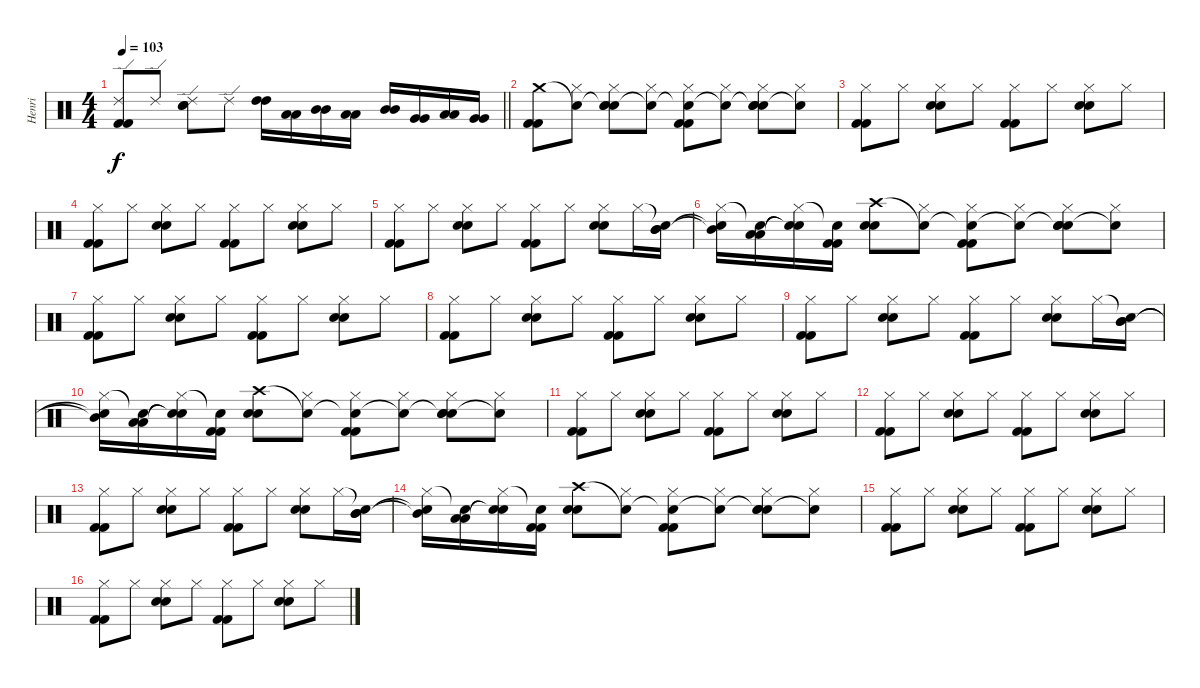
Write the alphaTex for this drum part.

\track ("Henri" "Henri") {instrument percussion}
\staff {score}
\articulation defaults
\ts (4 4)
\tempo 103
\clef neutral
\barLineRight lightlight
\ks c
("Ride (edge) 2" "Kick (hit) 2" "Kick (hit) 2").8{dy f} "Ride (edge) 2".8 ("Ride (edge) 2" "Snare (hit) 2" "Snare (hit) 2").8 "Ride (edge) 2".8 ("High Tom (hit)" "High Tom (hit)").16 ("Low Tom (hit)" "Low Tom (hit)").16 ("Mid Tom (hit)" "Mid Tom (hit)").16 ("Low Tom (hit)" "Low Tom (hit)").16 ("Mid Tom (hit)" "Mid Tom (hit)").16 ("Very Low Tom (hit)" "Very Low Tom (hit)").16 ("Low Tom (hit)" "Low Tom (hit)").16 ("Very Low Tom (hit)" "Very Low Tom (hit)").16 |
("Crash medium (hit)" "Kick (hit) 2" "Kick (hit) 2").8 ("Snare (hit)"{t} "Hi-Hat (closed)").8 ("Snare (hit)"{t} "Hi-Hat (closed)" "Snare (hit) 2" "Snare (hit) 2").8 ("Snare (hit)"{t} "Hi-Hat (closed)").8 ("Snare (hit)"{t} "Hi-Hat (closed)" "Kick (hit) 2" "Kick (hit) 2").8 ("Snare (hit)"{t} "Hi-Hat (closed)").8 ("Snare (hit)"{t} "Hi-Hat (closed)" "Snare (hit) 2" "Snare (hit) 2").8 ("Snare (hit)"{t} "Hi-Hat (closed)").8 |
("Hi-Hat (closed)" "Kick (hit) 2" "Kick (hit) 2").8 "Hi-Hat (closed)".8 ("Hi-Hat (closed)" "Snare (hit) 2" "Snare (hit) 2").8 "Hi-Hat (closed)".8 ("Hi-Hat (closed)" "Kick (hit) 2" "Kick (hit) 2").8 "Hi-Hat (closed)".8 ("Hi-Hat (closed)" "Snare (hit) 2" "Snare (hit) 2").8 "Hi-Hat (closed)".8 |
("Hi-Hat (closed)" "Kick (hit) 2" "Kick (hit) 2").8 "Hi-Hat (closed)".8 ("Hi-Hat (closed)" "Snare (hit) 2" "Snare (hit) 2").8 "Hi-Hat (closed)".8 ("Hi-Hat (closed)" "Kick (hit) 2" "Kick (hit) 2").8 "Hi-Hat (closed)".8 ("Hi-Hat (closed)" "Snare (hit) 2" "Snare (hit) 2").8 "Hi-Hat (closed)".8 |
("Hi-Hat (closed)" "Kick (hit) 2" "Kick (hit) 2").8 "Hi-Hat (closed)".8 ("Hi-Hat (closed)" "Snare (hit) 2" "Snare (hit) 2").8 "Hi-Hat (closed)".8 ("Hi-Hat (closed)" "Kick (hit) 2" "Kick (hit) 2").8 "Hi-Hat (closed)".8 ("Hi-Hat (closed)" "Snare (hit) 2" "Snare (hit) 2").8 "Hi-Hat (closed)".16 ("Snare (hit)"{t} "Mid Tom (hit)" "Mid Tom (hit)").16 |
("Hi-Hat (closed)" "Snare (hit)"{t} "Mid Tom (hit)"{t}).16 ("Snare (hit)"{t} "Low Tom (hit)" "Low Tom (hit)").16 ("Hi-Hat (closed)" "Snare (hit)"{t} "Snare (hit)"{t}).16 ("Snare (hit)"{t} "Kick (hit) 2" "Kick (hit) 2").16 ("Crash high (hit)" "Snare (hit) 2" "Snare (hit) 2").8 ("Snare (hit)"{t} "Hi-Hat (closed)").8 ("Snare (hit)"{t} "Hi-Hat (closed)" "Kick (hit) 2" "Kick (hit) 2").8 ("Snare (hit)"{t} "Hi-Hat (closed)").8 ("Snare (hit)"{t} "Hi-Hat (closed)" "Snare (hit) 2" "Snare (hit) 2").8 ("Snare (hit)"{t} "Hi-Hat (closed)").8 |
("Hi-Hat (closed)" "Kick (hit) 2" "Kick (hit) 2").8 "Hi-Hat (closed)".8 ("Hi-Hat (closed)" "Snare (hit) 2" "Snare (hit) 2").8 "Hi-Hat (closed)".8 ("Hi-Hat (closed)" "Kick (hit) 2" "Kick (hit) 2").8 "Hi-Hat (closed)".8 ("Hi-Hat (closed)" "Snare (hit) 2" "Snare (hit) 2").8 "Hi-Hat (closed)".8 |
("Hi-Hat (closed)" "Kick (hit) 2" "Kick (hit) 2").8 "Hi-Hat (closed)".8 ("Hi-Hat (closed)" "Snare (hit) 2" "Snare (hit) 2").8 "Hi-Hat (closed)".8 ("Hi-Hat (closed)" "Kick (hit) 2" "Kick (hit) 2").8 "Hi-Hat (closed)".8 ("Hi-Hat (closed)" "Snare (hit) 2" "Snare (hit) 2").8 "Hi-Hat (closed)".8 |
("Hi-Hat (closed)" "Kick (hit) 2" "Kick (hit) 2").8 "Hi-Hat (closed)".8 ("Hi-Hat (closed)" "Snare (hit) 2" "Snare (hit) 2").8 "Hi-Hat (closed)".8 ("Hi-Hat (closed)" "Kick (hit) 2" "Kick (hit) 2").8 "Hi-Hat (closed)".8 ("Hi-Hat (closed)" "Snare (hit) 2" "Snare (hit) 2").8 "Hi-Hat (closed)".16 ("Snare (hit)"{t} "Mid Tom (hit)" "Mid Tom (hit)").16 |
("Hi-Hat (closed)" "Snare (hit)"{t} "Mid Tom (hit)"{t}).16 ("Snare (hit)"{t} "Low Tom (hit)" "Low Tom (hit)").16 ("Hi-Hat (closed)" "Snare (hit)"{t} "Snare (hit)"{t}).16 ("Snare (hit)"{t} "Kick (hit) 2" "Kick (hit) 2").16 ("Crash high (hit)" "Snare (hit) 2" "Snare (hit) 2").8 ("Snare (hit)"{t} "Hi-Hat (closed)").8 ("Snare (hit)"{t} "Hi-Hat (closed)" "Kick (hit) 2" "Kick (hit) 2").8 ("Snare (hit)"{t} "Hi-Hat (closed)").8 ("Snare (hit)"{t} "Hi-Hat (closed)" "Snare (hit) 2" "Snare (hit) 2").8 ("Snare (hit)"{t} "Hi-Hat (closed)").8 |
("Hi-Hat (closed)" "Kick (hit) 2" "Kick (hit) 2").8 "Hi-Hat (closed)".8 ("Hi-Hat (closed)" "Snare (hit) 2" "Snare (hit) 2").8 "Hi-Hat (closed)".8 ("Hi-Hat (closed)" "Kick (hit) 2" "Kick (hit) 2").8 "Hi-Hat (closed)".8 ("Hi-Hat (closed)" "Snare (hit) 2" "Snare (hit) 2").8 "Hi-Hat (closed)".8 |
("Hi-Hat (closed)" "Kick (hit) 2" "Kick (hit) 2").8 "Hi-Hat (closed)".8 ("Hi-Hat (closed)" "Snare (hit) 2" "Snare (hit) 2").8 "Hi-Hat (closed)".8 ("Hi-Hat (closed)" "Kick (hit) 2" "Kick (hit) 2").8 "Hi-Hat (closed)".8 ("Hi-Hat (closed)" "Snare (hit) 2" "Snare (hit) 2").8 "Hi-Hat (closed)".8 |
("Hi-Hat (closed)" "Kick (hit) 2" "Kick (hit) 2").8 "Hi-Hat (closed)".8 ("Hi-Hat (closed)" "Snare (hit) 2" "Snare (hit) 2").8 "Hi-Hat (closed)".8 ("Hi-Hat (closed)" "Kick (hit) 2" "Kick (hit) 2").8 "Hi-Hat (closed)".8 ("Hi-Hat (closed)" "Snare (hit) 2" "Snare (hit) 2").8 "Hi-Hat (closed)".16 ("Snare (hit)"{t} "Mid Tom (hit)" "Mid Tom (hit)").16 |
("Hi-Hat (closed)" "Snare (hit)"{t} "Mid Tom (hit)"{t}).16 ("Snare (hit)"{t} "Low Tom (hit)" "Low Tom (hit)").16 ("Hi-Hat (closed)" "Snare (hit)"{t} "Snare (hit)"{t}).16 ("Snare (hit)"{t} "Kick (hit) 2" "Kick (hit) 2").16 ("Crash high (hit)" "Snare (hit) 2" "Snare (hit) 2").8 ("Snare (hit)"{t} "Hi-Hat (closed)").8 ("Snare (hit)"{t} "Hi-Hat (closed)" "Kick (hit) 2" "Kick (hit) 2").8 ("Snare (hit)"{t} "Hi-Hat (closed)").8 ("Snare (hit)"{t} "Hi-Hat (closed)" "Snare (hit) 2" "Snare (hit) 2").8 ("Snare (hit)"{t} "Hi-Hat (closed)").8 |
("Hi-Hat (closed)" "Kick (hit) 2" "Kick (hit) 2").8 "Hi-Hat (closed)".8 ("Hi-Hat (closed)" "Snare (hit) 2" "Snare (hit) 2").8 "Hi-Hat (closed)".8 ("Hi-Hat (closed)" "Kick (hit) 2" "Kick (hit) 2").8 "Hi-Hat (closed)".8 ("Hi-Hat (closed)" "Snare (hit) 2" "Snare (hit) 2").8 "Hi-Hat (closed)".8 |
("Hi-Hat (closed)" "Kick (hit) 2" "Kick (hit) 2").8 "Hi-Hat (closed)".8 ("Hi-Hat (closed)" "Snare (hit) 2" "Snare (hit) 2").8 "Hi-Hat (closed)".8 ("Hi-Hat (closed)" "Kick (hit) 2" "Kick (hit) 2").8 "Hi-Hat (closed)".8 ("Hi-Hat (closed)" "Snare (hit) 2" "Snare (hit) 2").8 "Hi-Hat (closed)".8
